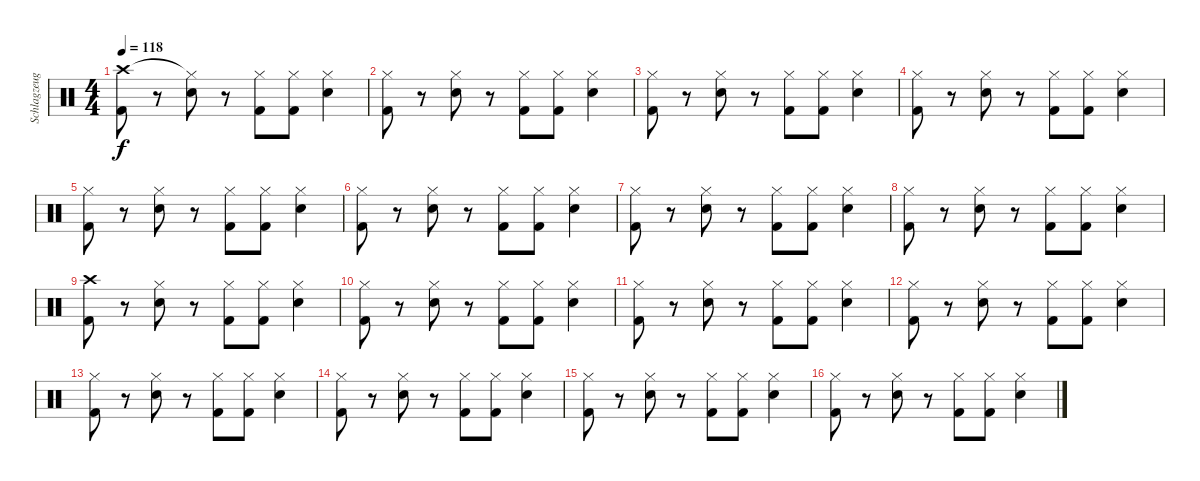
\track ("Schlagzeug" "Schlagzeug") {instrument percussion}
\staff {score}
\articulation defaults
\ts (4 4)
\tempo 118
\clef neutral
\ks c
("Crash high (hit)" "Kick (hit) 2").8{dy f} r.8 ("Hi-Hat (closed)"{t} "Electric Snare (hit)").8 r.8 ("Hi-Hat (closed)" "Kick (hit) 2").8 ("Hi-Hat (closed)" "Kick (hit) 2").8 ("Hi-Hat (closed)" "Electric Snare (hit)").4 |
("Hi-Hat (closed)" "Kick (hit) 2").8 r.8 ("Hi-Hat (closed)" "Electric Snare (hit)").8 r.8 ("Hi-Hat (closed)" "Kick (hit) 2").8 ("Hi-Hat (closed)" "Kick (hit) 2").8 ("Hi-Hat (closed)" "Electric Snare (hit)").4 |
("Hi-Hat (closed)" "Kick (hit) 2").8 r.8 ("Hi-Hat (closed)" "Electric Snare (hit)").8 r.8 ("Hi-Hat (closed)" "Kick (hit) 2").8 ("Hi-Hat (closed)" "Kick (hit) 2").8 ("Hi-Hat (closed)" "Electric Snare (hit)").4 |
("Hi-Hat (closed)" "Kick (hit) 2").8 r.8 ("Hi-Hat (closed)" "Electric Snare (hit)").8 r.8 ("Hi-Hat (closed)" "Kick (hit) 2").8 ("Hi-Hat (closed)" "Kick (hit) 2").8 ("Hi-Hat (closed)" "Electric Snare (hit)").4 |
("Hi-Hat (closed)" "Kick (hit) 2").8 r.8 ("Hi-Hat (closed)" "Electric Snare (hit)").8 r.8 ("Hi-Hat (closed)" "Kick (hit) 2").8 ("Hi-Hat (closed)" "Kick (hit) 2").8 ("Hi-Hat (closed)" "Electric Snare (hit)").4 |
("Hi-Hat (closed)" "Kick (hit) 2").8 r.8 ("Hi-Hat (closed)" "Electric Snare (hit)").8 r.8 ("Hi-Hat (closed)" "Kick (hit) 2").8 ("Hi-Hat (closed)" "Kick (hit) 2").8 ("Hi-Hat (closed)" "Electric Snare (hit)").4 |
("Hi-Hat (closed)" "Kick (hit) 2").8 r.8 ("Hi-Hat (closed)" "Electric Snare (hit)").8 r.8 ("Hi-Hat (closed)" "Kick (hit) 2").8 ("Hi-Hat (closed)" "Kick (hit) 2").8 ("Hi-Hat (closed)" "Electric Snare (hit)").4 |
("Hi-Hat (closed)" "Kick (hit) 2").8 r.8 ("Hi-Hat (closed)" "Electric Snare (hit)").8 r.8 ("Hi-Hat (closed)" "Kick (hit) 2").8 ("Hi-Hat (closed)" "Kick (hit) 2").8 ("Hi-Hat (closed)" "Electric Snare (hit)").4 |
("Crash high (hit)" "Kick (hit) 2").8 r.8 ("Hi-Hat (closed)" "Electric Snare (hit)").8 r.8 ("Hi-Hat (closed)" "Kick (hit) 2").8 ("Hi-Hat (closed)" "Kick (hit) 2").8 ("Hi-Hat (closed)" "Electric Snare (hit)").4 |
("Hi-Hat (closed)" "Kick (hit) 2").8 r.8 ("Hi-Hat (closed)" "Electric Snare (hit)").8 r.8 ("Hi-Hat (closed)" "Kick (hit) 2").8 ("Hi-Hat (closed)" "Kick (hit) 2").8 ("Hi-Hat (closed)" "Electric Snare (hit)").4 |
("Hi-Hat (closed)" "Kick (hit) 2").8 r.8 ("Hi-Hat (closed)" "Electric Snare (hit)").8 r.8 ("Hi-Hat (closed)" "Kick (hit) 2").8 ("Hi-Hat (closed)" "Kick (hit) 2").8 ("Hi-Hat (closed)" "Electric Snare (hit)").4 |
("Hi-Hat (closed)" "Kick (hit) 2").8 r.8 ("Hi-Hat (closed)" "Electric Snare (hit)").8 r.8 ("Hi-Hat (closed)" "Kick (hit) 2").8 ("Hi-Hat (closed)" "Kick (hit) 2").8 ("Hi-Hat (closed)" "Electric Snare (hit)").4 |
("Hi-Hat (closed)" "Kick (hit) 2").8 r.8 ("Hi-Hat (closed)" "Electric Snare (hit)").8 r.8 ("Hi-Hat (closed)" "Kick (hit) 2").8 ("Hi-Hat (closed)" "Kick (hit) 2").8 ("Hi-Hat (closed)" "Electric Snare (hit)").4 |
("Hi-Hat (closed)" "Kick (hit) 2").8 r.8 ("Hi-Hat (closed)" "Electric Snare (hit)").8 r.8 ("Hi-Hat (closed)" "Kick (hit) 2").8 ("Hi-Hat (closed)" "Kick (hit) 2").8 ("Hi-Hat (closed)" "Electric Snare (hit)").4 |
("Hi-Hat (closed)" "Kick (hit) 2").8 r.8 ("Hi-Hat (closed)" "Electric Snare (hit)").8 r.8 ("Hi-Hat (closed)" "Kick (hit) 2").8 ("Hi-Hat (closed)" "Kick (hit) 2").8 ("Hi-Hat (closed)" "Electric Snare (hit)").4 |
("Hi-Hat (closed)" "Kick (hit) 2").8 r.8 ("Hi-Hat (closed)" "Electric Snare (hit)").8 r.8 ("Hi-Hat (closed)" "Kick (hit) 2").8 ("Hi-Hat (closed)" "Kick (hit) 2").8 ("Hi-Hat (closed)" "Electric Snare (hit)").4
